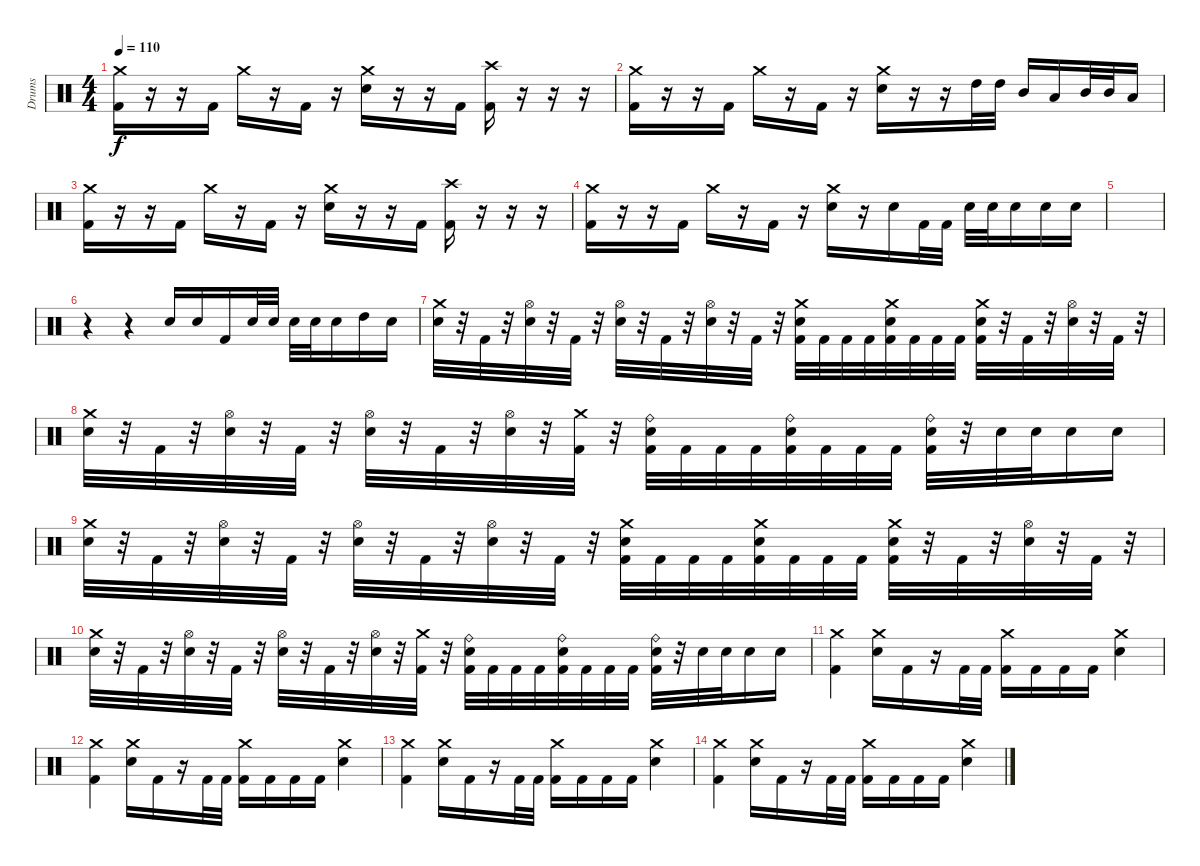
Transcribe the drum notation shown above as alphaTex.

\track ("Drums" "Drums") {instrument percussion}
\staff {score}
\articulation defaults
\ts (4 4)
\tempo 110
\clef neutral
\ks c
("Crash medium (hit)" "Kick (hit) 2").16{dy f} r.16 r.16 "Kick (hit) 2".16 "Crash medium (hit)".16 r.16 "Kick (hit) 2".16 r.16 ("Crash medium (hit)" "Electric Snare (hit)").16 r.16 r.16 "Kick (hit) 2".16 ("Crash high (hit)" "Kick (hit) 2").16 r.16 r.16 r.16 |
("Crash medium (hit)" "Kick (hit) 2").16 r.16 r.16 "Kick (hit) 2".16 "Crash medium (hit)".16 r.16 "Kick (hit) 2".16 r.16 ("Crash medium (hit)" "Electric Snare (hit)").16 r.16 r.16 "High Tom (hit)".32 "High Tom (hit)".32 "Mid Tom (hit)".16 "Low Tom (hit)".16 "Mid Tom (hit)".32 "Mid Tom (hit)".32 "Low Tom (hit)".16 |
("Crash medium (hit)" "Kick (hit) 2").16 r.16 r.16 "Kick (hit) 2".16 "Crash medium (hit)".16 r.16 "Kick (hit) 2".16 r.16 ("Crash medium (hit)" "Electric Snare (hit)").16 r.16 r.16 "Kick (hit) 2".16 ("Crash high (hit)" "Kick (hit) 2").16 r.16 r.16 r.16 |
("Crash medium (hit)" "Kick (hit) 2").16 r.16 r.16 "Kick (hit) 2".16 "Crash medium (hit)".16 r.16 "Kick (hit) 2".16 r.16 ("Crash medium (hit)" "Electric Snare (hit)").16 r.16 "Electric Snare (hit)".16 "Kick (hit) 2".32 "Kick (hit) 2".32 "Electric Snare (hit)".32 "Electric Snare (hit)".32 "Electric Snare (hit)".16 "Electric Snare (hit)".16 "Electric Snare (hit)".16 |
|
r.4 r.4 "Electric Snare (hit)".16 "Electric Snare (hit)".16 "Kick (hit) 2".16 "Electric Snare (hit)".32 "Electric Snare (hit)".32 "Electric Snare (hit)".32 "Electric Snare (hit)".32 "Electric Snare (hit)".16 "High Tom (hit)".16 "Electric Snare (hit)".16 |
("Crash medium (hit)" "Electric Snare (hit)").32 r.32 "Kick (hit) 2".32 r.32 ("Hi-Hat (open)" "Electric Snare (hit)").32 r.32 "Kick (hit) 2".32 r.32 ("Hi-Hat (open)" "Electric Snare (hit)").32 r.32 "Kick (hit) 2".32 r.32 ("Hi-Hat (open)" "Electric Snare (hit)").32 r.32 "Kick (hit) 2".32 r.32 ("Crash medium (hit)" "Electric Snare (hit)" "Kick (hit) 2").32 "Kick (hit) 2".32 "Kick (hit) 2".32 "Kick (hit) 2".32 ("Crash medium (hit)" "Electric Snare (hit)" "Kick (hit) 2").32 "Kick (hit) 2".32 "Kick (hit) 2".32 "Kick (hit) 2".32 ("Crash medium (hit)" "Electric Snare (hit)" "Kick (hit) 2").32 r.32 "Kick (hit) 2".32 r.32 ("Hi-Hat (open)" "Electric Snare (hit)").32 r.32 "Kick (hit) 2".32 r.32 |
("Crash medium (hit)" "Electric Snare (hit)").32 r.32 "Kick (hit) 2".32 r.32 ("Hi-Hat (open)" "Electric Snare (hit)").32 r.32 "Kick (hit) 2".32 r.32 ("Hi-Hat (open)" "Electric Snare (hit)").32 r.32 "Kick (hit) 2".32 r.32 ("Hi-Hat (open)" "Electric Snare (hit)").32 r.32 ("Crash medium (hit)" "Kick (hit) 2").32 r.32 ("Ride (bell)" "Electric Snare (hit)" "Kick (hit) 2").32 "Kick (hit) 2".32 "Kick (hit) 2".32 "Kick (hit) 2".32 ("Ride (bell)" "Electric Snare (hit)" "Kick (hit) 2").32 "Kick (hit) 2".32 "Kick (hit) 2".32 "Kick (hit) 2".32 ("Ride (bell)" "Electric Snare (hit)" "Kick (hit) 2").32 r.32 "Electric Snare (hit)".32 "Electric Snare (hit)".32 "Electric Snare (hit)".16 "Electric Snare (hit)".16 |
("Crash medium (hit)" "Electric Snare (hit)").32 r.32 "Kick (hit) 2".32 r.32 ("Hi-Hat (open)" "Electric Snare (hit)").32 r.32 "Kick (hit) 2".32 r.32 ("Hi-Hat (open)" "Electric Snare (hit)").32 r.32 "Kick (hit) 2".32 r.32 ("Hi-Hat (open)" "Electric Snare (hit)").32 r.32 "Kick (hit) 2".32 r.32 ("Crash medium (hit)" "Electric Snare (hit)" "Kick (hit) 2").32 "Kick (hit) 2".32 "Kick (hit) 2".32 "Kick (hit) 2".32 ("Crash medium (hit)" "Electric Snare (hit)" "Kick (hit) 2").32 "Kick (hit) 2".32 "Kick (hit) 2".32 "Kick (hit) 2".32 ("Crash medium (hit)" "Electric Snare (hit)" "Kick (hit) 2").32 r.32 "Kick (hit) 2".32 r.32 ("Hi-Hat (open)" "Electric Snare (hit)").32 r.32 "Kick (hit) 2".32 r.32 |
("Crash medium (hit)" "Electric Snare (hit)").32 r.32 "Kick (hit) 2".32 r.32 ("Hi-Hat (open)" "Electric Snare (hit)").32 r.32 "Kick (hit) 2".32 r.32 ("Hi-Hat (open)" "Electric Snare (hit)").32 r.32 "Kick (hit) 2".32 r.32 ("Hi-Hat (open)" "Electric Snare (hit)").32 r.32 ("Crash medium (hit)" "Kick (hit) 2").32 r.32 ("Ride (bell)" "Electric Snare (hit)" "Kick (hit) 2").32 "Kick (hit) 2".32 "Kick (hit) 2".32 "Kick (hit) 2".32 ("Ride (bell)" "Electric Snare (hit)" "Kick (hit) 2").32 "Kick (hit) 2".32 "Kick (hit) 2".32 "Kick (hit) 2".32 ("Ride (bell)" "Electric Snare (hit)" "Kick (hit) 2").32 r.32 "Electric Snare (hit)".32 "Electric Snare (hit)".32 "Electric Snare (hit)".16 "Electric Snare (hit)".16 |
("Crash medium (hit)" "Kick (hit) 2").4 ("Crash medium (hit)" "Electric Snare (hit)").16 "Kick (hit) 2".16 r.16 "Kick (hit) 2".32 "Kick (hit) 2".32 ("Crash medium (hit)" "Kick (hit) 2").16 "Kick (hit) 2".16 "Kick (hit) 2".16 "Kick (hit) 2".16 ("Crash medium (hit)" "Electric Snare (hit)").4 |
("Crash medium (hit)" "Kick (hit) 2").4 ("Crash medium (hit)" "Electric Snare (hit)").16 "Kick (hit) 2".16 r.16 "Kick (hit) 2".32 "Kick (hit) 2".32 ("Crash medium (hit)" "Kick (hit) 2").16 "Kick (hit) 2".16 "Kick (hit) 2".16 "Kick (hit) 2".16 ("Crash medium (hit)" "Electric Snare (hit)").4 |
("Crash medium (hit)" "Kick (hit) 2").4 ("Crash medium (hit)" "Electric Snare (hit)").16 "Kick (hit) 2".16 r.16 "Kick (hit) 2".32 "Kick (hit) 2".32 ("Crash medium (hit)" "Kick (hit) 2").16 "Kick (hit) 2".16 "Kick (hit) 2".16 "Kick (hit) 2".16 ("Crash medium (hit)" "Electric Snare (hit)").4 |
("Crash medium (hit)" "Kick (hit) 2").4 ("Crash medium (hit)" "Electric Snare (hit)").16 "Kick (hit) 2".16 r.16 "Kick (hit) 2".32 "Kick (hit) 2".32 ("Crash medium (hit)" "Kick (hit) 2").16 "Kick (hit) 2".16 "Kick (hit) 2".16 "Kick (hit) 2".16 ("Crash medium (hit)" "Electric Snare (hit)").4
